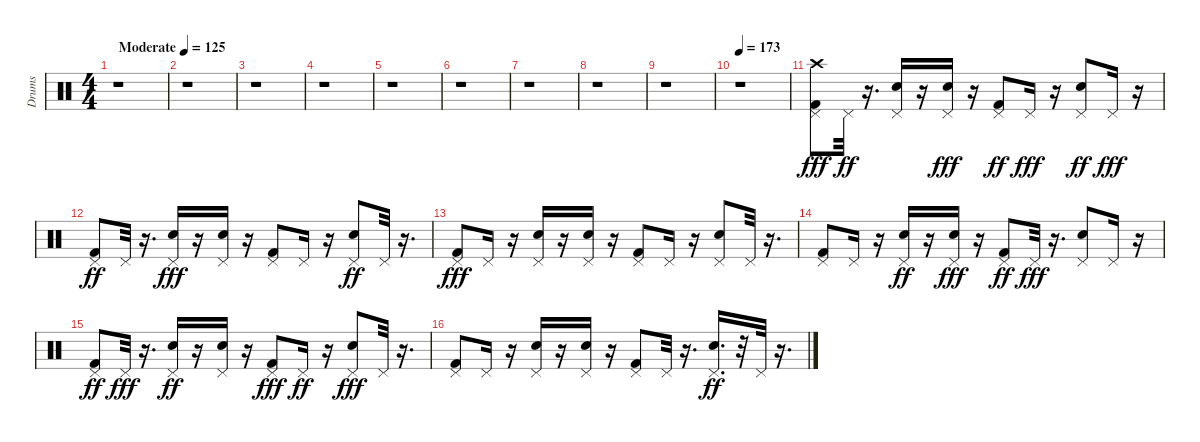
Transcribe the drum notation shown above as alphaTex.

\track ("Drums" "Drums") {instrument percussion}
\staff {score}
\articulation defaults
\ts (4 4)
\tempo (125 "Moderate")
\clef neutral
\ks c
r.1{dy fff} |
r.1 |
r.1 |
r.1 |
r.1 |
r.1 |
r.1 |
r.1 |
r.1 |
\tempo 173
r.1 |
("Kick (hit) 2" "Pedal Hi-Hat (hit)" "Crash high (hit)").8 "Pedal Hi-Hat (hit)".32{dy ff} r.16{d} ("Snare (hit) 2" "Pedal Hi-Hat (hit)").16 r.16 ("Snare (hit) 2" "Pedal Hi-Hat (hit)").16{dy fff} r.16 ("Kick (hit) 2" "Pedal Hi-Hat (hit)").8{dy ff} "Pedal Hi-Hat (hit)".16{dy fff} r.16 ("Snare (hit) 2" "Pedal Hi-Hat (hit)").8{dy ff} "Pedal Hi-Hat (hit)".16{dy fff} r.16 |
("Kick (hit) 2" "Pedal Hi-Hat (hit)").8{dy ff} "Pedal Hi-Hat (hit)".32 r.16{d} ("Snare (hit) 2" "Pedal Hi-Hat (hit)").16{dy fff} r.16 ("Snare (hit) 2" "Pedal Hi-Hat (hit)").16 r.16 ("Kick (hit) 2" "Pedal Hi-Hat (hit)").8 "Pedal Hi-Hat (hit)".16 r.16 ("Snare (hit) 2" "Pedal Hi-Hat (hit)").8{dy ff} "Pedal Hi-Hat (hit)".32 r.16{d} |
("Kick (hit) 2" "Pedal Hi-Hat (hit)").8{dy fff} "Pedal Hi-Hat (hit)".16 r.16 ("Snare (hit) 2" "Pedal Hi-Hat (hit)").16 r.16 ("Snare (hit) 2" "Pedal Hi-Hat (hit)").16 r.16 ("Kick (hit) 2" "Pedal Hi-Hat (hit)").8 "Pedal Hi-Hat (hit)".16 r.16 ("Snare (hit) 2" "Pedal Hi-Hat (hit)").8 "Pedal Hi-Hat (hit)".32 r.16{d} |
("Kick (hit) 2" "Pedal Hi-Hat (hit)").8 "Pedal Hi-Hat (hit)".16 r.16 ("Snare (hit) 2" "Pedal Hi-Hat (hit)").16{dy ff} r.16 ("Snare (hit) 2" "Pedal Hi-Hat (hit)").16{dy fff} r.16 ("Kick (hit) 2" "Pedal Hi-Hat (hit)").8{dy ff} "Pedal Hi-Hat (hit)".32{dy fff} r.16{d} ("Snare (hit) 2" "Pedal Hi-Hat (hit)").8 "Pedal Hi-Hat (hit)".16 r.16 |
("Kick (hit) 2" "Pedal Hi-Hat (hit)").8{dy ff} "Pedal Hi-Hat (hit)".32{dy fff} r.16{d} ("Snare (hit) 2" "Pedal Hi-Hat (hit)").16{dy ff} r.16 ("Snare (hit) 2" "Pedal Hi-Hat (hit)").16 r.16 ("Kick (hit) 2" "Pedal Hi-Hat (hit)").8{dy fff} "Pedal Hi-Hat (hit)".16{dy ff} r.16 ("Snare (hit) 2" "Pedal Hi-Hat (hit)").8{dy fff} "Pedal Hi-Hat (hit)".32 r.16{d} |
("Kick (hit) 2" "Pedal Hi-Hat (hit)").8 "Pedal Hi-Hat (hit)".16 r.16 ("Snare (hit) 2" "Pedal Hi-Hat (hit)").16 r.16 ("Snare (hit) 2" "Pedal Hi-Hat (hit)").16 r.16 ("Kick (hit) 2" "Pedal Hi-Hat (hit)").8 "Pedal Hi-Hat (hit)".32 r.16{d} ("Snare (hit) 2" "Pedal Hi-Hat (hit)").16{d dy ff} r.32 "Pedal Hi-Hat (hit)".32 r.16{d}
